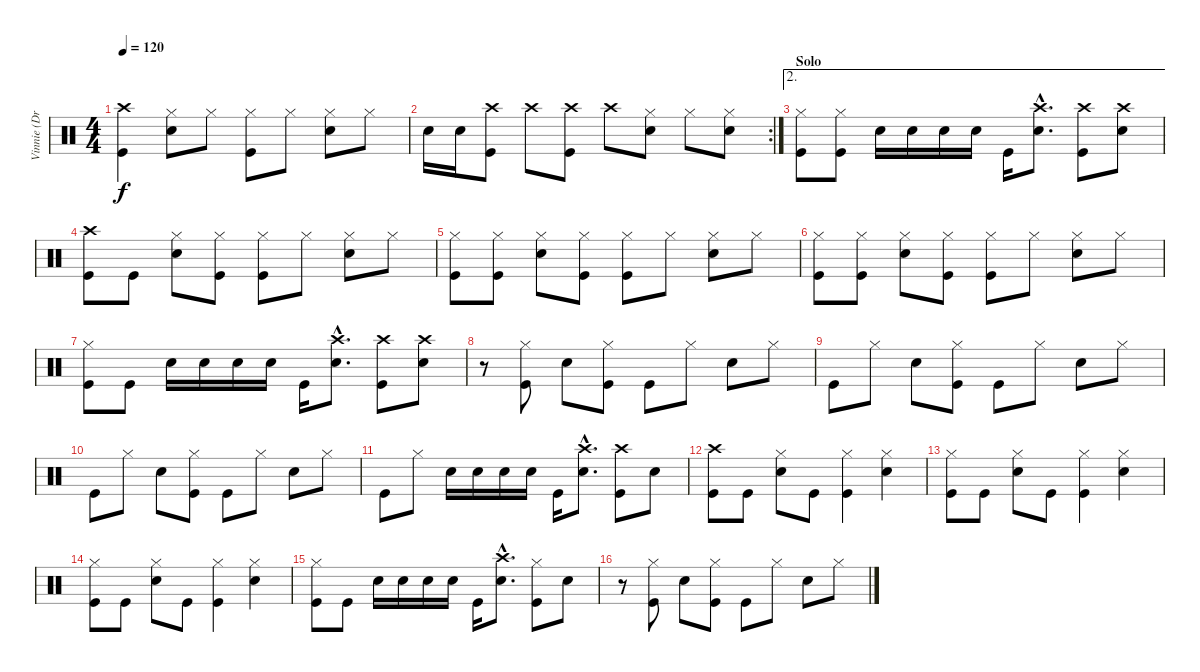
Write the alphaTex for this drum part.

\track ("Vinnie (Drums)" "Vinnie (Dr") {instrument percussion}
\staff {score}
\articulation defaults
\ts (4 4)
\tempo 120
\clef neutral
\ks c
("Crash high (hit)" "Kick (hit)").4{dy f} ("Hi-Hat (closed)" "Snare (hit) 2").8 "Hi-Hat (closed)".8 ("Hi-Hat (closed)" "Kick (hit)").8 "Hi-Hat (closed)".8 ("Hi-Hat (closed)" "Snare (hit) 2").8 "Hi-Hat (closed)".8 |
\rc 2 "Snare (hit) 2".16 "Snare (hit) 2".16
("Crash high (hit)" "Kick (hit)").8 "Crash high (hit)".8 ("Crash high (hit)" "Kick (hit)").8 "Crash high (hit)".8 ("Hi-Hat (closed)" "Snare (hit) 2").8 "Hi-Hat (closed)".8 ("Hi-Hat (closed)" "Snare (hit) 2").8 |
\ae 2
\section ("" "Solo")
("Hi-Hat (closed)" "Kick (hit)").8 ("Hi-Hat (closed)" "Kick (hit)").8 "Snare (hit) 2".16 "Snare (hit) 2".16 "Snare (hit) 2".16 "Snare (hit) 2".16 "Kick (hit)".16 ("Crash high (hit)"{hac} "Snare (hit) 2"{hac}).8{d} ("Crash high (hit)" "Kick (hit)").8 ("Crash high (hit)" "Snare (hit) 2").8 |
("Crash high (hit)" "Kick (hit)").8 "Kick (hit)".8 ("Hi-Hat (closed)" "Snare (hit) 2").8 ("Hi-Hat (closed)" "Kick (hit)").8 ("Hi-Hat (closed)" "Kick (hit)").8 "Hi-Hat (closed)".8 ("Hi-Hat (closed)" "Snare (hit) 2").8 "Hi-Hat (closed)".8 |
("Hi-Hat (closed)" "Kick (hit)").8 ("Hi-Hat (closed)" "Kick (hit)").8 ("Hi-Hat (closed)" "Snare (hit) 2").8 ("Hi-Hat (closed)" "Kick (hit)").8 ("Hi-Hat (closed)" "Kick (hit)").8 "Hi-Hat (closed)".8 ("Hi-Hat (closed)" "Snare (hit) 2").8 "Hi-Hat (closed)".8 |
("Hi-Hat (closed)" "Kick (hit)").8 ("Hi-Hat (closed)" "Kick (hit)").8 ("Hi-Hat (closed)" "Snare (hit) 2").8 ("Hi-Hat (closed)" "Kick (hit)").8 ("Hi-Hat (closed)" "Kick (hit)").8 "Hi-Hat (closed)".8 ("Hi-Hat (closed)" "Snare (hit) 2").8 "Hi-Hat (closed)".8 |
("Hi-Hat (closed)" "Kick (hit)").8 "Kick (hit)".8 "Snare (hit) 2".16 "Snare (hit) 2".16 "Snare (hit) 2".16 "Snare (hit) 2".16 "Kick (hit)".16 ("Crash high (hit)"{hac} "Snare (hit) 2"{hac}).8{d} ("Crash high (hit)" "Kick (hit)").8 ("Crash high (hit)" "Snare (hit) 2").8 |
r.8 ("Hi-Hat (closed)" "Kick (hit)").8 "Snare (hit) 2".8 ("Hi-Hat (closed)" "Kick (hit)").8 "Kick (hit)".8 "Hi-Hat (closed)".8 "Snare (hit) 2".8 "Hi-Hat (closed)".8 |
"Kick (hit)".8 "Hi-Hat (closed)".8 "Snare (hit) 2".8 ("Hi-Hat (closed)" "Kick (hit)").8 "Kick (hit)".8 "Hi-Hat (closed)".8 "Snare (hit) 2".8 "Hi-Hat (closed)".8 |
"Kick (hit)".8 "Hi-Hat (closed)".8 "Snare (hit) 2".8 ("Hi-Hat (closed)" "Kick (hit)").8 "Kick (hit)".8 "Hi-Hat (closed)".8 "Snare (hit) 2".8 "Hi-Hat (closed)".8 |
"Kick (hit)".8 "Hi-Hat (closed)".8 "Snare (hit) 2".16 "Snare (hit) 2".16 "Snare (hit) 2".16 "Snare (hit) 2".16 "Kick (hit)".16 ("Crash high (hit)"{hac} "Snare (hit) 2"{hac}).8{d} ("Crash high (hit)" "Kick (hit)").8 "Snare (hit) 2".8 |
("Crash high (hit)" "Kick (hit)").8 "Kick (hit)".8 ("Hi-Hat (closed)" "Snare (hit) 2").8 "Kick (hit)".8 ("Hi-Hat (closed)" "Kick (hit)").4 ("Hi-Hat (closed)" "Snare (hit) 2").4 |
("Hi-Hat (closed)" "Kick (hit)").8 "Kick (hit)".8 ("Hi-Hat (closed)" "Snare (hit) 2").8 "Kick (hit)".8 ("Hi-Hat (closed)" "Kick (hit)").4 ("Hi-Hat (closed)" "Snare (hit) 2").4 |
("Hi-Hat (closed)" "Kick (hit)").8 "Kick (hit)".8 ("Hi-Hat (closed)" "Snare (hit) 2").8 "Kick (hit)".8 ("Hi-Hat (closed)" "Kick (hit)").4 ("Hi-Hat (closed)" "Snare (hit) 2").4 |
("Hi-Hat (closed)" "Kick (hit)").8 "Kick (hit)".8 "Snare (hit) 2".16 "Snare (hit) 2".16 "Snare (hit) 2".16 "Snare (hit) 2".16 "Kick (hit)".16 ("Crash high (hit)"{hac} "Snare (hit) 2"{hac}).8{d} ("Hi-Hat (closed)" "Kick (hit)").8 "Snare (hit) 2".8 |
r.8 ("Hi-Hat (closed)" "Kick (hit)").8 "Snare (hit) 2".8 ("Hi-Hat (closed)" "Kick (hit)").8 "Kick (hit)".8 "Hi-Hat (closed)".8 "Snare (hit) 2".8 "Hi-Hat (closed)".8
